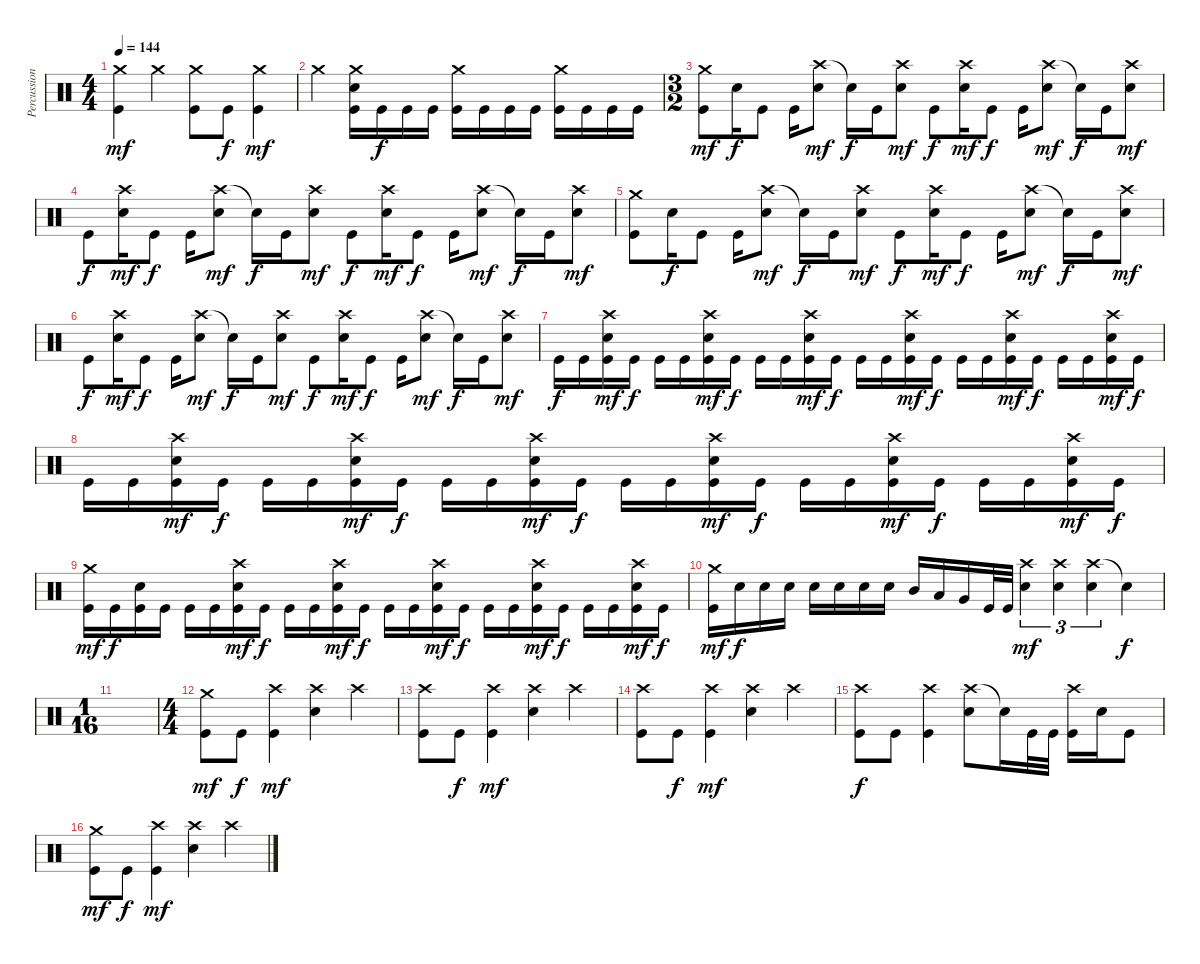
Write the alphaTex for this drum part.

\track ("Percussion" "Percussion") {instrument percussion}
\staff {score}
\articulation defaults
\ts (4 4)
\tempo 144
\clef neutral
\ks c
("Crash medium (hit)" "Kick (hit)").4{dy mf} "Crash medium (hit)".4 ("Crash medium (hit)" "Kick (hit)").8 "Kick (hit)".8{dy f} ("Crash medium (hit)" "Kick (hit)").4{dy mf} |
"Crash medium (hit)".4 ("Crash medium (hit)" "Electric Snare (hit)" "Kick (hit)").16 "Kick (hit)".16{dy f} "Kick (hit)".16 "Kick (hit)".16 ("Crash medium (hit)" "Kick (hit)").16 "Kick (hit)".16 "Kick (hit)".16 "Kick (hit)".16 ("Crash medium (hit)" "Kick (hit)").16 "Kick (hit)".16 "Kick (hit)".16 "Kick (hit)".16 |
\ts (3 2)
("Crash medium (hit)" "Kick (hit)").8{dy mf} "Electric Snare (hit)".16{dy f} "Kick (hit)".8 "Kick (hit)".16 ("Crash high (hit)" "Electric Snare (hit)").8{dy mf} "Snare (hit)"{t}.16{dy f} "Kick (hit)".16 ("Crash high (hit)" "Electric Snare (hit)").8{dy mf} "Kick (hit)".8{dy f} ("Crash high (hit)" "Electric Snare (hit)").16{dy mf} "Kick (hit)".8{dy f} "Kick (hit)".16 ("Crash high (hit)" "Electric Snare (hit)").8{dy mf} "Snare (hit)"{t}.16{dy f} "Kick (hit)".16 ("Crash high (hit)" "Electric Snare (hit)").8{dy mf} |
"Kick (hit)".8{dy f} ("Crash high (hit)" "Electric Snare (hit)").16{dy mf} "Kick (hit)".8{dy f} "Kick (hit)".16 ("Crash high (hit)" "Electric Snare (hit)").8{dy mf} "Snare (hit)"{t}.16{dy f} "Kick (hit)".16 ("Crash high (hit)" "Electric Snare (hit)").8{dy mf} "Kick (hit)".8{dy f} ("Crash high (hit)" "Electric Snare (hit)").16{dy mf} "Kick (hit)".8{dy f} "Kick (hit)".16 ("Crash high (hit)" "Electric Snare (hit)").8{dy mf} "Snare (hit)"{t}.16{dy f} "Kick (hit)".16 ("Crash high (hit)" "Electric Snare (hit)").8{dy mf} |
("Crash medium (hit)" "Kick (hit)").8 "Electric Snare (hit)".16{dy f} "Kick (hit)".8 "Kick (hit)".16 ("Crash high (hit)" "Electric Snare (hit)").8{dy mf} "Snare (hit)"{t}.16{dy f} "Kick (hit)".16 ("Crash high (hit)" "Electric Snare (hit)").8{dy mf} "Kick (hit)".8{dy f} ("Crash high (hit)" "Electric Snare (hit)").16{dy mf} "Kick (hit)".8{dy f} "Kick (hit)".16 ("Crash high (hit)" "Electric Snare (hit)").8{dy mf} "Snare (hit)"{t}.16{dy f} "Kick (hit)".16 ("Crash high (hit)" "Electric Snare (hit)").8{dy mf} |
"Kick (hit)".8{dy f} ("Crash high (hit)" "Electric Snare (hit)").16{dy mf} "Kick (hit)".8{dy f} "Kick (hit)".16 ("Crash high (hit)" "Electric Snare (hit)").8{dy mf} "Snare (hit)"{t}.16{dy f} "Kick (hit)".16 ("Crash high (hit)" "Electric Snare (hit)").8{dy mf} "Kick (hit)".8{dy f} ("Crash high (hit)" "Electric Snare (hit)").16{dy mf} "Kick (hit)".8{dy f} "Kick (hit)".16 ("Crash high (hit)" "Electric Snare (hit)").8{dy mf} "Snare (hit)"{t}.16{dy f} "Kick (hit)".16 ("Crash high (hit)" "Electric Snare (hit)").8{dy mf} |
"Kick (hit)".16{dy f} "Kick (hit)".16 ("Crash high (hit)" "Electric Snare (hit)" "Kick (hit)").16{dy mf} "Kick (hit)".16{dy f} "Kick (hit)".16 "Kick (hit)".16 ("Crash high (hit)" "Electric Snare (hit)" "Kick (hit)").16{dy mf} "Kick (hit)".16{dy f} "Kick (hit)".16 "Kick (hit)".16 ("Crash high (hit)" "Electric Snare (hit)" "Kick (hit)").16{dy mf} "Kick (hit)".16{dy f} "Kick (hit)".16 "Kick (hit)".16 ("Crash high (hit)" "Electric Snare (hit)" "Kick (hit)").16{dy mf} "Kick (hit)".16{dy f} "Kick (hit)".16 "Kick (hit)".16 ("Crash high (hit)" "Electric Snare (hit)" "Kick (hit)").16{dy mf} "Kick (hit)".16{dy f} "Kick (hit)".16 "Kick (hit)".16 ("Crash high (hit)" "Electric Snare (hit)" "Kick (hit)").16{dy mf} "Kick (hit)".16{dy f} |
"Kick (hit)".16 "Kick (hit)".16 ("Crash high (hit)" "Electric Snare (hit)" "Kick (hit)").16{dy mf} "Kick (hit)".16{dy f} "Kick (hit)".16 "Kick (hit)".16 ("Crash high (hit)" "Electric Snare (hit)" "Kick (hit)").16{dy mf} "Kick (hit)".16{dy f} "Kick (hit)".16 "Kick (hit)".16 ("Crash high (hit)" "Electric Snare (hit)" "Kick (hit)").16{dy mf} "Kick (hit)".16{dy f} "Kick (hit)".16 "Kick (hit)".16 ("Crash high (hit)" "Electric Snare (hit)" "Kick (hit)").16{dy mf} "Kick (hit)".16{dy f} "Kick (hit)".16 "Kick (hit)".16 ("Crash high (hit)" "Electric Snare (hit)" "Kick (hit)").16{dy mf} "Kick (hit)".16{dy f} "Kick (hit)".16 "Kick (hit)".16 ("Crash high (hit)" "Electric Snare (hit)" "Kick (hit)").16{dy mf} "Kick (hit)".16{dy f} |
("Crash medium (hit)" "Kick (hit)").16{dy mf} "Kick (hit)".16{dy f} ("Electric Snare (hit)" "Kick (hit)").16 "Kick (hit)".16 "Kick (hit)".16 "Kick (hit)".16 ("Crash high (hit)" "Electric Snare (hit)" "Kick (hit)").16{dy mf} "Kick (hit)".16{dy f} "Kick (hit)".16 "Kick (hit)".16 ("Crash high (hit)" "Electric Snare (hit)" "Kick (hit)").16{dy mf} "Kick (hit)".16{dy f} "Kick (hit)".16 "Kick (hit)".16 ("Crash high (hit)" "Electric Snare (hit)" "Kick (hit)").16{dy mf} "Kick (hit)".16{dy f} "Kick (hit)".16 "Kick (hit)".16 ("Crash high (hit)" "Electric Snare (hit)" "Kick (hit)").16{dy mf} "Kick (hit)".16{dy f} "Kick (hit)".16 "Kick (hit)".16 ("Crash high (hit)" "Electric Snare (hit)" "Kick (hit)").16{dy mf} "Kick (hit)".16{dy f} |
("Crash medium (hit)" "Kick (hit)").16{dy mf} "Electric Snare (hit)".16{dy f} "Electric Snare (hit)".16 "Electric Snare (hit)".16 "Electric Snare (hit)".16 "Electric Snare (hit)".16 "Electric Snare (hit)".16 "Electric Snare (hit)".16 "Mid Tom (hit)".16 "Low Tom (hit)".16 "Very Low Tom (hit)".16 "Kick (hit)".32 "Kick (hit)".32 ("Crash high (hit)" "Electric Snare (hit)").4{tu (3 2) dy mf} ("Crash high (hit)" "Electric Snare (hit)").4{tu (3 2)} ("Crash high (hit)" "Electric Snare (hit)").4{tu (3 2)} "Snare (hit)"{t}.4{dy f} |
\ts (1 16)
|
\ts (4 4)
("Crash medium (hit)" "Kick (hit)").8{dy mf} "Kick (hit)".8{dy f} ("Crash high (hit)" "Kick (hit)").4{dy mf} ("Crash high (hit)" "Electric Snare (hit)").4 "Crash high (hit)".4 |
("Crash high (hit)" "Kick (hit)").8 "Kick (hit)".8{dy f} ("Crash high (hit)" "Kick (hit)").4{dy mf} ("Crash high (hit)" "Electric Snare (hit)").4 "Crash high (hit)".4 |
("Crash high (hit)" "Kick (hit)").8 "Kick (hit)".8{dy f} ("Crash high (hit)" "Kick (hit)").4{dy mf} ("Crash high (hit)" "Electric Snare (hit)").4 "Crash high (hit)".4 |
("Crash high (hit)" "Kick (hit)").8{dy f} "Kick (hit)".8 ("Crash high (hit)" "Kick (hit)").4 ("Crash high (hit)" "Electric Snare (hit)").8 "Snare (hit)"{t}.16 "Kick (hit)".32 "Kick (hit)".32 ("Crash high (hit)" "Kick (hit)").16 "Electric Snare (hit)".16 "Kick (hit)".8 |
("Crash medium (hit)" "Kick (hit)").8{dy mf} "Kick (hit)".8{dy f} ("Crash high (hit)" "Kick (hit)").4{dy mf} ("Crash high (hit)" "Electric Snare (hit)").4 "Crash high (hit)".4
